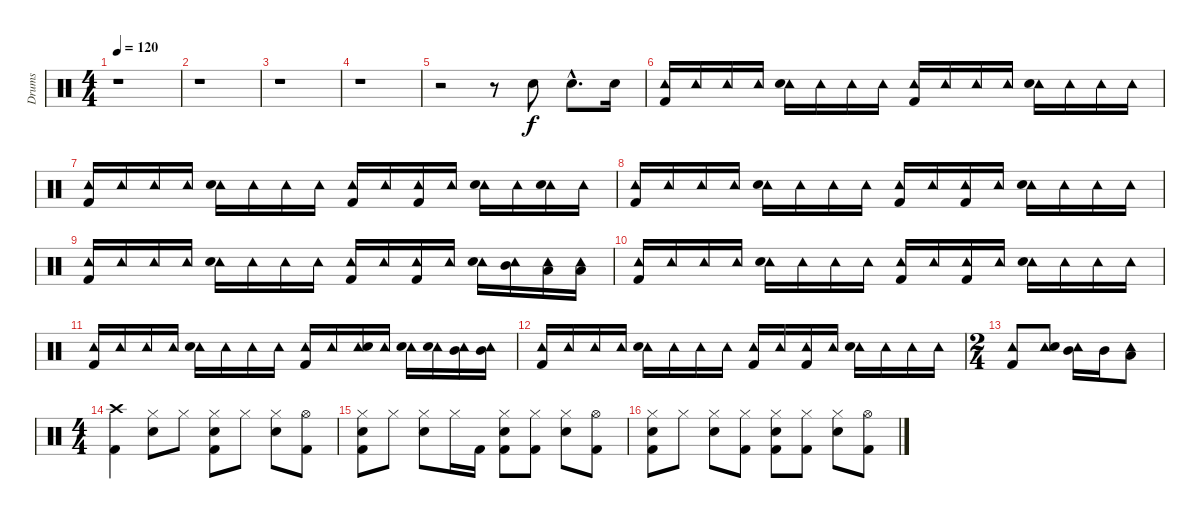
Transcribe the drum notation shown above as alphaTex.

\track ("Drums" "Drums") {instrument percussion}
\staff {score}
\articulation defaults
\ts (4 4)
\tempo 120
\clef neutral
\ks c
r.1{dy f} |
r.1 |
r.1 |
r.1 |
r.2 r.8 "Snare (hit) 2".8 "Snare (hit) 2"{hac}.8{d} "Snare (hit) 2".16 |
("Tambourine (hit)" "Kick (hit) 2").16 "Tambourine (hit)".16 "Tambourine (hit)".16 "Tambourine (hit)".16 ("Tambourine (hit)" "Snare (hit) 2").16 "Tambourine (hit)".16 "Tambourine (hit)".16 "Tambourine (hit)".16 ("Tambourine (hit)" "Kick (hit) 2").16 "Tambourine (hit)".16 "Tambourine (hit)".16 "Tambourine (hit)".16 ("Tambourine (hit)" "Snare (hit) 2").16 "Tambourine (hit)".16 "Tambourine (hit)".16 "Tambourine (hit)".16 |
("Tambourine (hit)" "Kick (hit) 2").16 "Tambourine (hit)".16 "Tambourine (hit)".16 "Tambourine (hit)".16 ("Tambourine (hit)" "Snare (hit) 2").16 "Tambourine (hit)".16 "Tambourine (hit)".16 "Tambourine (hit)".16 ("Tambourine (hit)" "Kick (hit) 2").16 "Tambourine (hit)".16 ("Tambourine (hit)" "Kick (hit) 2").16 "Tambourine (hit)".16 ("Tambourine (hit)" "Snare (hit) 2").16 "Tambourine (hit)".16 ("Tambourine (hit)" "Snare (hit) 2").16 "Tambourine (hit)".16 |
("Tambourine (hit)" "Kick (hit) 2").16 "Tambourine (hit)".16 "Tambourine (hit)".16 "Tambourine (hit)".16 ("Tambourine (hit)" "Snare (hit) 2").16 "Tambourine (hit)".16 "Tambourine (hit)".16 "Tambourine (hit)".16 ("Tambourine (hit)" "Kick (hit) 2").16 "Tambourine (hit)".16 ("Tambourine (hit)" "Kick (hit) 2").16 "Tambourine (hit)".16 ("Tambourine (hit)" "Snare (hit) 2").16 "Tambourine (hit)".16 "Tambourine (hit)".16 "Tambourine (hit)".16 |
("Tambourine (hit)" "Kick (hit) 2").16 "Tambourine (hit)".16 "Tambourine (hit)".16 "Tambourine (hit)".16 ("Tambourine (hit)" "Snare (hit) 2").16 "Tambourine (hit)".16 "Tambourine (hit)".16 "Tambourine (hit)".16 ("Tambourine (hit)" "Kick (hit) 2").16 "Tambourine (hit)".16 ("Tambourine (hit)" "Kick (hit) 2").16 "Tambourine (hit)".16 ("Tambourine (hit)" "Snare (hit) 2").16 ("Tambourine (hit)" "Mid Tom (hit)").16 ("Tambourine (hit)" "Low Tom (hit)").16 ("Tambourine (hit)" "Low Tom (hit)").16 |
("Tambourine (hit)" "Kick (hit) 2").16 "Tambourine (hit)".16 "Tambourine (hit)".16 "Tambourine (hit)".16 ("Tambourine (hit)" "Snare (hit) 2").16 "Tambourine (hit)".16 "Tambourine (hit)".16 "Tambourine (hit)".16 ("Tambourine (hit)" "Kick (hit) 2").16 "Tambourine (hit)".16 ("Tambourine (hit)" "Kick (hit) 2").16 "Tambourine (hit)".16 ("Tambourine (hit)" "Snare (hit) 2").16 "Tambourine (hit)".16 "Tambourine (hit)".16 "Tambourine (hit)".16 |
("Tambourine (hit)" "Kick (hit) 2").16 "Tambourine (hit)".16 "Tambourine (hit)".16 "Tambourine (hit)".16 ("Tambourine (hit)" "Snare (hit) 2").16 "Tambourine (hit)".16 "Tambourine (hit)".16 "Tambourine (hit)".16 ("Tambourine (hit)" "Kick (hit) 2").16 "Tambourine (hit)".16 ("Tambourine (hit)" "Snare (hit) 2").16 "Tambourine (hit)".16 ("Tambourine (hit)" "Snare (hit) 2").16 ("Tambourine (hit)" "Snare (hit) 2").16 ("Tambourine (hit)" "Mid Tom (hit)").16 ("Tambourine (hit)" "Mid Tom (hit)").16 |
("Tambourine (hit)" "Kick (hit) 2").16 "Tambourine (hit)".16 "Tambourine (hit)".16 "Tambourine (hit)".16 ("Tambourine (hit)" "Snare (hit) 2").16 "Tambourine (hit)".16 "Tambourine (hit)".16 "Tambourine (hit)".16 ("Tambourine (hit)" "Kick (hit) 2").16 "Tambourine (hit)".16 ("Tambourine (hit)" "Kick (hit) 2").16 "Tambourine (hit)".16 ("Tambourine (hit)" "Snare (hit) 2").16 "Tambourine (hit)".16 "Tambourine (hit)".16 "Tambourine (hit)".16 |
\ts (2 4)
("Tambourine (hit)" "Kick (hit) 2").8 ("Tambourine (hit)" "Snare (hit) 2").8 ("Tambourine (hit)" "Mid Tom (hit)").16 "Mid Tom (hit)".16 ("Tambourine (hit)" "Low Tom (hit)").8 |
\ts (4 4)
("Crash high (hit)" "Kick (hit) 2").4 ("Hi-Hat (closed)" "Snare (hit) 2").8 "Hi-Hat (closed)".8 ("Hi-Hat (closed)" "Snare (hit) 2" "Kick (hit) 2").8 "Hi-Hat (closed)".8 ("Hi-Hat (closed)" "Snare (hit) 2").8 ("Hi-Hat (open)" "Kick (hit) 2").8 |
("Hi-Hat (closed)" "Snare (hit) 2" "Kick (hit) 2").8 "Hi-Hat (closed)".8 ("Hi-Hat (closed)" "Snare (hit) 2").8 "Hi-Hat (closed)".16 "Kick (hit) 2".16 ("Hi-Hat (closed)" "Snare (hit) 2" "Kick (hit) 2").8 ("Hi-Hat (closed)" "Kick (hit) 2").8 ("Hi-Hat (closed)" "Snare (hit) 2").8 ("Hi-Hat (open)" "Kick (hit) 2").8 |
("Hi-Hat (closed)" "Snare (hit) 2" "Kick (hit) 2").8 "Hi-Hat (closed)".8 ("Hi-Hat (closed)" "Snare (hit) 2").8 ("Hi-Hat (closed)" "Kick (hit) 2").8 ("Hi-Hat (closed)" "Snare (hit) 2" "Kick (hit) 2").8 ("Hi-Hat (closed)" "Kick (hit) 2").8 ("Hi-Hat (closed)" "Snare (hit) 2").8 ("Hi-Hat (open)" "Kick (hit) 2").8
